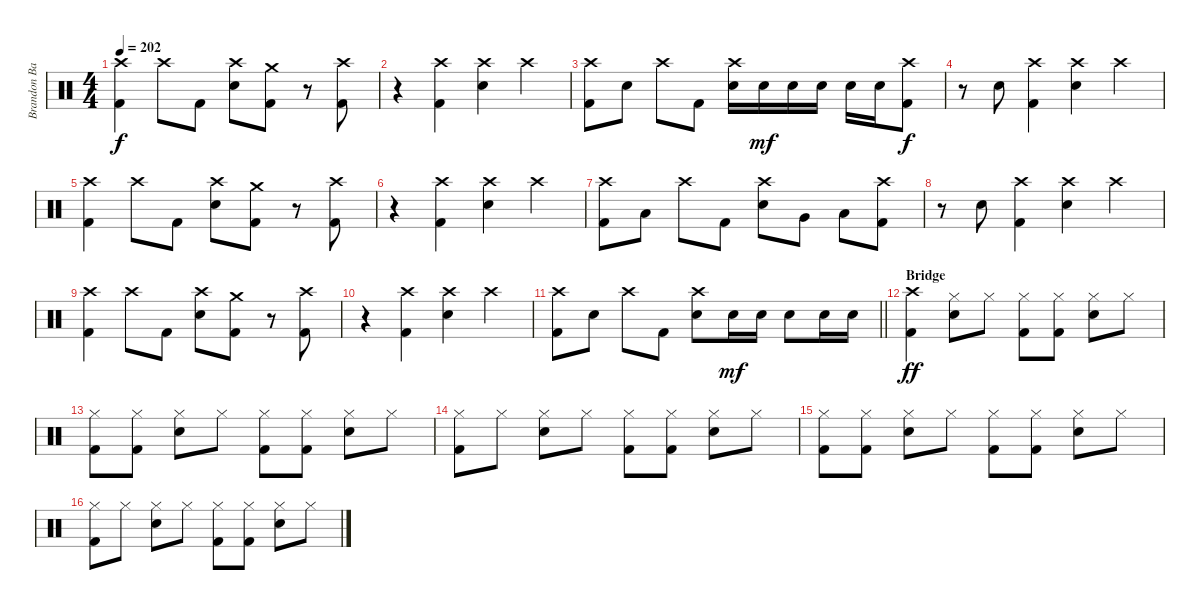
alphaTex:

\track ("Brandon Barnes - Drums" "Brandon Ba") {instrument percussion}
\staff {score}
\articulation defaults
\ts (4 4)
\tempo 202
\clef neutral
\ks c
("Crash high (hit)" "Kick (hit) 2").4{dy f} "Crash high (hit)".8 "Kick (hit) 2".8 ("Snare (hit) 2" "Crash high (hit)").8 ("Kick (hit) 2" "Crash medium (hit)").8 r.8 ("Crash high (hit)" "Kick (hit) 2").8 |
r.4 ("Kick (hit) 2" "Crash high (hit)").4 ("Snare (hit) 2" "Crash high (hit)").4 "Crash high (hit)".4 |
("Kick (hit) 2" "Crash high (hit)").8 "Snare (hit) 2".8 "Crash high (hit)".8 "Kick (hit) 2".8 ("Snare (hit) 2" "Crash high (hit)").16 "Snare (hit) 2".16{dy mf} "Snare (hit) 2".16 "Snare (hit) 2".16 "Snare (hit) 2".16 "Snare (hit) 2".16 ("Crash high (hit)" "Kick (hit) 2").8{dy f} |
r.8 "Snare (hit) 2".8 ("Kick (hit) 2" "Crash high (hit)").4 ("Snare (hit) 2" "Crash high (hit)").4 "Crash high (hit)".4 |
("Crash high (hit)" "Kick (hit) 2").4 "Crash high (hit)".8 "Kick (hit) 2".8 ("Snare (hit) 2" "Crash high (hit)").8 ("Kick (hit) 2" "Crash medium (hit)").8 r.8 ("Crash high (hit)" "Kick (hit) 2").8 |
r.4 ("Kick (hit) 2" "Crash high (hit)").4 ("Snare (hit) 2" "Crash high (hit)").4 "Crash high (hit)".4 |
("Kick (hit) 2" "Crash high (hit)").8 "Low Tom (hit)".8 "Crash high (hit)".8 "Kick (hit) 2".8 ("Snare (hit) 2" "Crash high (hit)").8 "Very Low Tom (hit)".8 "Low Floor Tom (hit)".8 ("Crash high (hit)" "Kick (hit) 2").8 |
r.8 "Snare (hit) 2".8 ("Kick (hit) 2" "Crash high (hit)").4 ("Snare (hit) 2" "Crash high (hit)").4 "Crash high (hit)".4 |
("Crash high (hit)" "Kick (hit) 2").4 "Crash high (hit)".8 "Kick (hit) 2".8 ("Snare (hit) 2" "Crash high (hit)").8 ("Kick (hit) 2" "Crash medium (hit)").8 r.8 ("Crash high (hit)" "Kick (hit) 2").8 |
r.4 ("Kick (hit) 2" "Crash high (hit)").4 ("Snare (hit) 2" "Crash high (hit)").4 "Crash high (hit)".4 |
\barLineRight lightlight
("Kick (hit) 2" "Crash high (hit)").8 "Snare (hit) 2".8 "Crash high (hit)".8 "Kick (hit) 2".8 ("Snare (hit) 2" "Crash high (hit)").8 "Snare (hit) 2".16{dy mf} "Snare (hit) 2".16 "Snare (hit) 2".8 "Snare (hit) 2".16 "Snare (hit) 2".16 |
\section ("" "Bridge")
("Crash high (hit)" "Kick (hit) 2").4{dy ff} ("Snare (hit) 2" "Hi-Hat (closed)").8 "Hi-Hat (closed)".8 ("Kick (hit) 2" "Hi-Hat (closed)").8 ("Kick (hit) 2" "Hi-Hat (closed)").8 ("Snare (hit) 2" "Hi-Hat (closed)").8 "Hi-Hat (closed)".8 |
("Kick (hit) 2" "Hi-Hat (closed)").8 ("Kick (hit) 2" "Hi-Hat (closed)").8 ("Snare (hit) 2" "Hi-Hat (closed)").8 "Hi-Hat (closed)".8 ("Kick (hit) 2" "Hi-Hat (closed)").8 ("Kick (hit) 2" "Hi-Hat (closed)").8 ("Snare (hit) 2" "Hi-Hat (closed)").8 "Hi-Hat (closed)".8 |
("Kick (hit) 2" "Hi-Hat (closed)").8 "Hi-Hat (closed)".8 ("Snare (hit) 2" "Hi-Hat (closed)").8 "Hi-Hat (closed)".8 ("Kick (hit) 2" "Hi-Hat (closed)").8 ("Kick (hit) 2" "Hi-Hat (closed)").8 ("Snare (hit) 2" "Hi-Hat (closed)").8 "Hi-Hat (closed)".8 |
("Kick (hit) 2" "Hi-Hat (closed)").8 ("Kick (hit) 2" "Hi-Hat (closed)").8 ("Snare (hit) 2" "Hi-Hat (closed)").8 "Hi-Hat (closed)".8 ("Kick (hit) 2" "Hi-Hat (closed)").8 ("Kick (hit) 2" "Hi-Hat (closed)").8 ("Snare (hit) 2" "Hi-Hat (closed)").8 "Hi-Hat (closed)".8 |
("Kick (hit) 2" "Hi-Hat (closed)").8 "Hi-Hat (closed)".8 ("Snare (hit) 2" "Hi-Hat (closed)").8 "Hi-Hat (closed)".8 ("Kick (hit) 2" "Hi-Hat (closed)").8 ("Kick (hit) 2" "Hi-Hat (closed)").8 ("Snare (hit) 2" "Hi-Hat (closed)").8 "Hi-Hat (closed)".8
